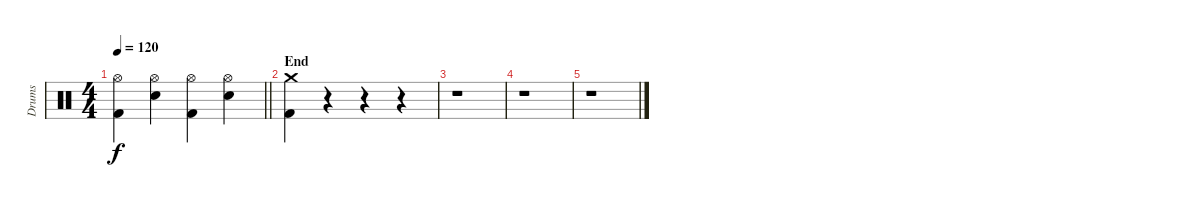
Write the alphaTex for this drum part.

\track ("Drums" "Drums") {instrument percussion}
\staff {score}
\articulation defaults
\ts (4 4)
\tempo 120
\clef neutral
\barLineRight lightlight
\ks c
("Hi-Hat (open)" "Kick (hit) 2").4{dy f} ("Hi-Hat (open)" "Electric Snare (hit)").4 ("Hi-Hat (open)" "Kick (hit) 2").4 ("Hi-Hat (open)" "Electric Snare (hit)").4 |
\section ("" "End")
("Crash medium (hit)" "Kick (hit) 2").4 r.4 r.4 r.4 |
r.1 |
r.1 |
r.1
